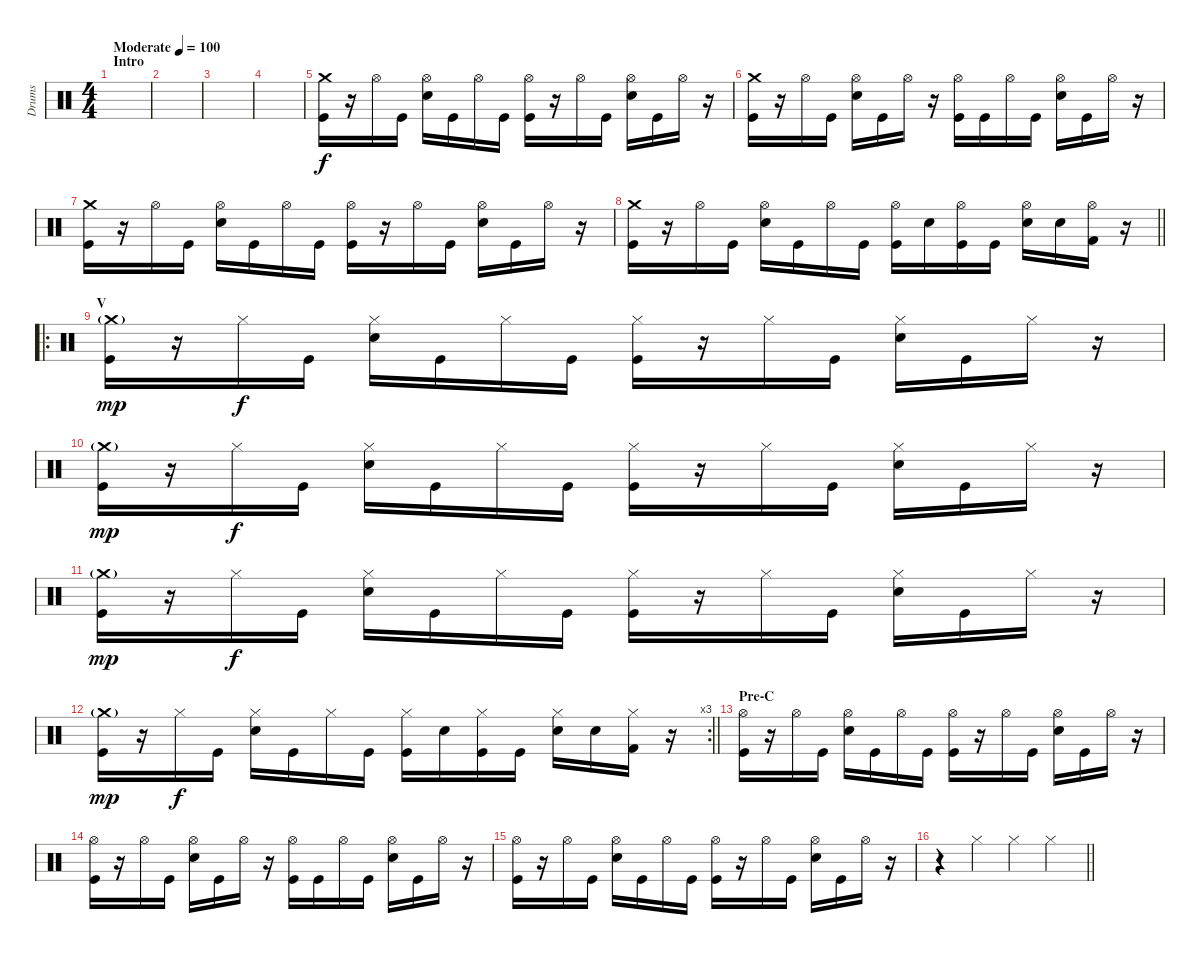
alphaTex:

\track ("Drums" "Drums") {instrument percussion}
\staff {score}
\articulation defaults
\ts (4 4)
\section ("" "Intro")
\tempo (100 "Moderate")
\clef neutral
\ks c
|
|
|
|
("Crash medium (hit)" "Kick (hit)").16 r.16 "Hi-Hat (open)".16 "Kick (hit)".16 ("Hi-Hat (open)" "Snare (hit) 2").16 "Kick (hit)".16 "Hi-Hat (open)".16 "Kick (hit)".16 ("Hi-Hat (open)" "Kick (hit)").16 r.16 "Hi-Hat (open)".16 "Kick (hit)".16 ("Hi-Hat (open)" "Snare (hit) 2").16 "Kick (hit)".16 "Hi-Hat (open)".16 r.16 |
("Crash medium (hit)" "Kick (hit)").16 r.16 "Hi-Hat (open)".16 "Kick (hit)".16 ("Hi-Hat (open)" "Snare (hit) 2").16 "Kick (hit)".16 "Hi-Hat (open)".16 r.16 ("Hi-Hat (open)" "Kick (hit)").16 "Kick (hit)".16 "Hi-Hat (open)".16 "Kick (hit)".16 ("Hi-Hat (open)" "Snare (hit) 2").16 "Kick (hit)".16 "Hi-Hat (open)".16 r.16 |
("Crash medium (hit)" "Kick (hit)").16 r.16 "Hi-Hat (open)".16 "Kick (hit)".16 ("Hi-Hat (open)" "Snare (hit) 2").16 "Kick (hit)".16 "Hi-Hat (open)".16 "Kick (hit)".16 ("Hi-Hat (open)" "Kick (hit)").16 r.16 "Hi-Hat (open)".16 "Kick (hit)".16 ("Hi-Hat (open)" "Snare (hit) 2").16 "Kick (hit)".16 "Hi-Hat (open)".16 r.16 |
\barLineRight lightlight
("Crash medium (hit)" "Kick (hit)").16 r.16 "Hi-Hat (open)".16 "Kick (hit)".16 ("Hi-Hat (open)" "Snare (hit) 2").16 "Kick (hit)".16 "Hi-Hat (open)".16 "Kick (hit)".16 ("Hi-Hat (open)" "Kick (hit)").16 "Snare (hit) 2".16 ("Hi-Hat (open)" "Kick (hit)").16 "Kick (hit)".16 ("Hi-Hat (open)" "Snare (hit) 2").16 "Snare (hit) 2".16 ("Hi-Hat (open)" "Kick (hit) 2").16 r.16 |
\ro
\section ("" "V")
("Crash medium (hit)"{g} "Kick (hit)").16{dy mp} r.16 "Hi-Hat (closed)".16{dy f} "Kick (hit)".16 ("Hi-Hat (closed)" "Snare (hit) 2").16 "Kick (hit)".16 "Hi-Hat (closed)".16 "Kick (hit)".16 ("Hi-Hat (closed)" "Kick (hit)").16 r.16 "Hi-Hat (closed)".16 "Kick (hit)".16 ("Hi-Hat (closed)" "Snare (hit) 2").16 "Kick (hit)".16 "Hi-Hat (closed)".16 r.16 |
("Crash medium (hit)"{g} "Kick (hit)").16{dy mp} r.16 "Hi-Hat (closed)".16{dy f} "Kick (hit)".16 ("Hi-Hat (closed)" "Snare (hit) 2").16 "Kick (hit)".16 "Hi-Hat (closed)".16 "Kick (hit)".16 ("Hi-Hat (closed)" "Kick (hit)").16 r.16 "Hi-Hat (closed)".16 "Kick (hit)".16 ("Hi-Hat (closed)" "Snare (hit) 2").16 "Kick (hit)".16 "Hi-Hat (closed)".16 r.16 |
("Crash medium (hit)"{g} "Kick (hit)").16{dy mp} r.16 "Hi-Hat (closed)".16{dy f} "Kick (hit)".16 ("Hi-Hat (closed)" "Snare (hit) 2").16 "Kick (hit)".16 "Hi-Hat (closed)".16 "Kick (hit)".16 ("Hi-Hat (closed)" "Kick (hit)").16 r.16 "Hi-Hat (closed)".16 "Kick (hit)".16 ("Hi-Hat (closed)" "Snare (hit) 2").16 "Kick (hit)".16 "Hi-Hat (closed)".16 r.16 |
\rc 3
\barLineRight lightlight
("Crash medium (hit)"{g} "Kick (hit)").16{dy mp} r.16 "Hi-Hat (closed)".16{dy f} "Kick (hit)".16 ("Hi-Hat (closed)" "Snare (hit) 2").16 "Kick (hit)".16 "Hi-Hat (closed)".16 "Kick (hit)".16 ("Hi-Hat (closed)" "Kick (hit)").16 "Snare (hit) 2".16 ("Hi-Hat (closed)" "Kick (hit)").16 "Kick (hit)".16 ("Hi-Hat (closed)" "Snare (hit) 2").16 "Snare (hit) 2".16 ("Hi-Hat (closed)" "Kick (hit) 2").16 r.16 |
\section ("" "Pre-C")
("Hi-Hat (open)" "Kick (hit)").16 r.16 "Hi-Hat (open)".16 "Kick (hit)".16 ("Hi-Hat (open)" "Snare (hit) 2").16 "Kick (hit)".16 "Hi-Hat (open)".16 "Kick (hit)".16 ("Hi-Hat (open)" "Kick (hit)").16 r.16 "Hi-Hat (open)".16 "Kick (hit)".16 ("Hi-Hat (open)" "Snare (hit) 2").16 "Kick (hit)".16 "Hi-Hat (open)".16 r.16 |
("Hi-Hat (open)" "Kick (hit)").16 r.16 "Hi-Hat (open)".16 "Kick (hit)".16 ("Hi-Hat (open)" "Snare (hit) 2").16 "Kick (hit)".16 "Hi-Hat (open)".16 r.16 ("Hi-Hat (open)" "Kick (hit)").16 "Kick (hit)".16 "Hi-Hat (open)".16 "Kick (hit)".16 ("Hi-Hat (open)" "Snare (hit) 2").16 "Kick (hit)".16 "Hi-Hat (open)".16 r.16 |
("Hi-Hat (open)" "Kick (hit)").16 r.16 "Hi-Hat (open)".16 "Kick (hit)".16 ("Hi-Hat (open)" "Snare (hit) 2").16 "Kick (hit)".16 "Hi-Hat (open)".16 "Kick (hit)".16 ("Hi-Hat (open)" "Kick (hit)").16 r.16 "Hi-Hat (open)".16 "Kick (hit)".16 ("Hi-Hat (open)" "Snare (hit) 2").16 "Kick (hit)".16 "Hi-Hat (open)".16 r.16 |
\barLineRight lightlight
r.4 "Hi-Hat (closed)".4 "Hi-Hat (closed)".4 "Hi-Hat (closed)".4
